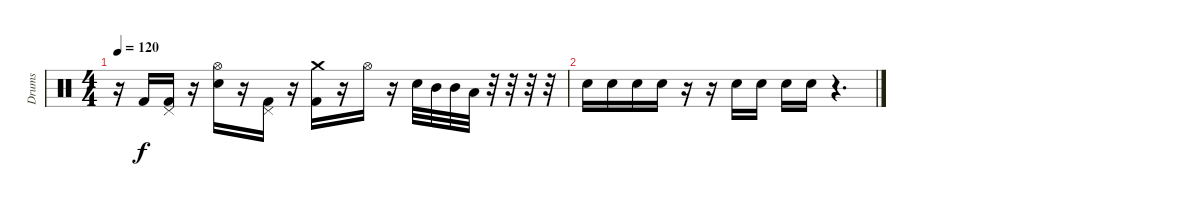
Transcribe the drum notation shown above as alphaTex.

\track ("Drums" "Drums") {instrument percussion}
\staff {score}
\articulation defaults
\ts (4 4)
\tempo 120
\clef neutral
\ks c
r.16{dy f} "Kick (hit) 2".16 ("Pedal Hi-Hat (hit)" "Kick (hit) 2").16 r.16 ("Hi-Hat (open)" "Electric Snare (hit)").16 r.16 ("Pedal Hi-Hat (hit)" "Kick (hit) 2").16 r.16 ("Crash medium (hit)" "Kick (hit) 2").16 r.16 "Hi-Hat (open)".16 r.16 "Electric Snare (hit)".32 "Mid Tom (hit)".32 "Mid Tom (hit)".32 "Low Tom (hit)".32 r.32 r.32 r.32 r.32 |
"Electric Snare (hit)".16 "Electric Snare (hit)".16 "Electric Snare (hit)".16 "Electric Snare (hit)".16 r.16 r.16 "Electric Snare (hit)".16 "Electric Snare (hit)".16 "Electric Snare (hit)".16 "Electric Snare (hit)".16 r.4{d}
